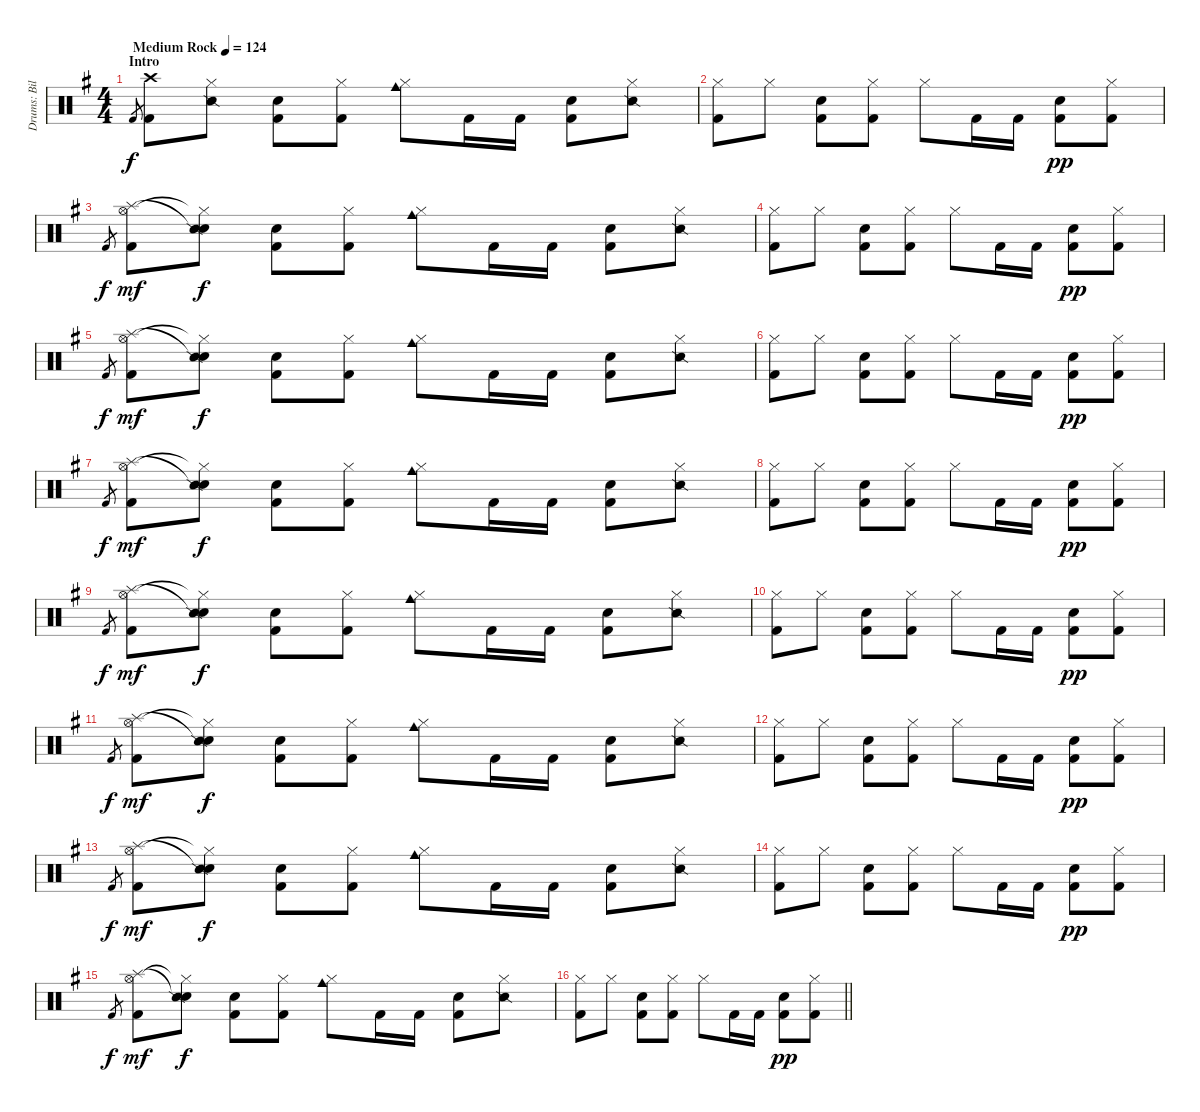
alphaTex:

\track ("Drums: Bill" "Drums: Bil") {instrument percussion}
\staff {score}
\articulation defaults
\ts (4 4)
\section ("" "Intro")
\tempo (124 "Medium Rock")
\clef neutral
\ks g "Kick (hit) 2".8{gr dy f}
("Crash high (hit)" "Kick (hit) 2").8 ("Hi-Hat (closed)" "Snare (side stick) 2").8 ("Electric Snare (hit)" "Kick (hit) 2").8 ("Hi-Hat (closed)" "Kick (hit) 2").8 ("Hi-Hat (closed)" "Cowbell medium (hit)").8 "Kick (hit) 2".16 "Kick (hit) 2".16 ("Electric Snare (hit)" "Kick (hit) 2").8 ("Hi-Hat (closed)" "Snare (side stick) 2").8 |
("Hi-Hat (closed)" "Kick (hit) 2").8 "Hi-Hat (closed)".8 ("Electric Snare (hit)" "Kick (hit) 2").8 ("Hi-Hat (closed)" "Kick (hit) 2").8 "Hi-Hat (closed)".8 "Kick (hit) 2".16 "Kick (hit) 2".16 ("Electric Snare (hit)" "Kick (hit) 2").8{dy pp} ("Hi-Hat (closed)" "Kick (hit) 2").8 |
"Kick (hit) 2".8{gr dy f} ("Splash (hit)" "Hi-Hat (open)" "Kick (hit) 2").8{dy mf} ("Snare (hit)"{t} "Hi-Hat (closed)"{t} "Snare (side stick) 2").8{dy f} ("Electric Snare (hit)" "Kick (hit) 2").8 ("Hi-Hat (closed)" "Kick (hit) 2").8 ("Hi-Hat (closed)" "Cowbell medium (hit)").8 "Kick (hit) 2".16 "Kick (hit) 2".16 ("Electric Snare (hit)" "Kick (hit) 2").8 ("Hi-Hat (closed)" "Snare (side stick) 2").8 |
("Hi-Hat (closed)" "Kick (hit) 2").8 "Hi-Hat (closed)".8 ("Electric Snare (hit)" "Kick (hit) 2").8 ("Hi-Hat (closed)" "Kick (hit) 2").8 "Hi-Hat (closed)".8 "Kick (hit) 2".16 "Kick (hit) 2".16 ("Electric Snare (hit)" "Kick (hit) 2").8{dy pp} ("Hi-Hat (closed)" "Kick (hit) 2").8 |
"Kick (hit) 2".8{gr dy f} ("Splash (hit)" "Hi-Hat (open)" "Kick (hit) 2").8{dy mf} ("Snare (hit)"{t} "Hi-Hat (closed)"{t} "Snare (side stick) 2").8{dy f} ("Electric Snare (hit)" "Kick (hit) 2").8 ("Hi-Hat (closed)" "Kick (hit) 2").8 ("Hi-Hat (closed)" "Cowbell medium (hit)").8 "Kick (hit) 2".16 "Kick (hit) 2".16 ("Electric Snare (hit)" "Kick (hit) 2").8 ("Hi-Hat (closed)" "Snare (side stick) 2").8 |
("Hi-Hat (closed)" "Kick (hit) 2").8 "Hi-Hat (closed)".8 ("Electric Snare (hit)" "Kick (hit) 2").8 ("Hi-Hat (closed)" "Kick (hit) 2").8 "Hi-Hat (closed)".8 "Kick (hit) 2".16 "Kick (hit) 2".16 ("Electric Snare (hit)" "Kick (hit) 2").8{dy pp} ("Hi-Hat (closed)" "Kick (hit) 2").8 |
"Kick (hit) 2".8{gr dy f} ("Splash (hit)" "Hi-Hat (open)" "Kick (hit) 2").8{dy mf} ("Snare (hit)"{t} "Hi-Hat (closed)"{t} "Snare (side stick) 2").8{dy f} ("Electric Snare (hit)" "Kick (hit) 2").8 ("Hi-Hat (closed)" "Kick (hit) 2").8 ("Hi-Hat (closed)" "Cowbell medium (hit)").8 "Kick (hit) 2".16 "Kick (hit) 2".16 ("Electric Snare (hit)" "Kick (hit) 2").8 ("Hi-Hat (closed)" "Snare (side stick) 2").8 |
("Hi-Hat (closed)" "Kick (hit) 2").8 "Hi-Hat (closed)".8 ("Electric Snare (hit)" "Kick (hit) 2").8 ("Hi-Hat (closed)" "Kick (hit) 2").8 "Hi-Hat (closed)".8 "Kick (hit) 2".16 "Kick (hit) 2".16 ("Electric Snare (hit)" "Kick (hit) 2").8{dy pp} ("Hi-Hat (closed)" "Kick (hit) 2").8 |
"Kick (hit) 2".8{gr dy f} ("Splash (hit)" "Hi-Hat (open)" "Kick (hit) 2").8{dy mf} ("Snare (hit)"{t} "Hi-Hat (closed)"{t} "Snare (side stick) 2").8{dy f} ("Electric Snare (hit)" "Kick (hit) 2").8 ("Hi-Hat (closed)" "Kick (hit) 2").8 ("Hi-Hat (closed)" "Cowbell medium (hit)").8 "Kick (hit) 2".16 "Kick (hit) 2".16 ("Electric Snare (hit)" "Kick (hit) 2").8 ("Hi-Hat (closed)" "Snare (side stick) 2").8 |
("Hi-Hat (closed)" "Kick (hit) 2").8 "Hi-Hat (closed)".8 ("Electric Snare (hit)" "Kick (hit) 2").8 ("Hi-Hat (closed)" "Kick (hit) 2").8 "Hi-Hat (closed)".8 "Kick (hit) 2".16 "Kick (hit) 2".16 ("Electric Snare (hit)" "Kick (hit) 2").8{dy pp} ("Hi-Hat (closed)" "Kick (hit) 2").8 |
"Kick (hit) 2".8{gr dy f} ("Splash (hit)" "Hi-Hat (open)" "Kick (hit) 2").8{dy mf} ("Snare (hit)"{t} "Hi-Hat (closed)"{t} "Snare (side stick) 2").8{dy f} ("Electric Snare (hit)" "Kick (hit) 2").8 ("Hi-Hat (closed)" "Kick (hit) 2").8 ("Hi-Hat (closed)" "Cowbell medium (hit)").8 "Kick (hit) 2".16 "Kick (hit) 2".16 ("Electric Snare (hit)" "Kick (hit) 2").8 ("Hi-Hat (closed)" "Snare (side stick) 2").8 |
("Hi-Hat (closed)" "Kick (hit) 2").8 "Hi-Hat (closed)".8 ("Electric Snare (hit)" "Kick (hit) 2").8 ("Hi-Hat (closed)" "Kick (hit) 2").8 "Hi-Hat (closed)".8 "Kick (hit) 2".16 "Kick (hit) 2".16 ("Electric Snare (hit)" "Kick (hit) 2").8{dy pp} ("Hi-Hat (closed)" "Kick (hit) 2").8 |
"Kick (hit) 2".8{gr dy f} ("Splash (hit)" "Hi-Hat (open)" "Kick (hit) 2").8{dy mf} ("Snare (hit)"{t} "Hi-Hat (closed)"{t} "Snare (side stick) 2").8{dy f} ("Electric Snare (hit)" "Kick (hit) 2").8 ("Hi-Hat (closed)" "Kick (hit) 2").8 ("Hi-Hat (closed)" "Cowbell medium (hit)").8 "Kick (hit) 2".16 "Kick (hit) 2".16 ("Electric Snare (hit)" "Kick (hit) 2").8 ("Hi-Hat (closed)" "Snare (side stick) 2").8 |
("Hi-Hat (closed)" "Kick (hit) 2").8 "Hi-Hat (closed)".8 ("Electric Snare (hit)" "Kick (hit) 2").8 ("Hi-Hat (closed)" "Kick (hit) 2").8 "Hi-Hat (closed)".8 "Kick (hit) 2".16 "Kick (hit) 2".16 ("Electric Snare (hit)" "Kick (hit) 2").8{dy pp} ("Hi-Hat (closed)" "Kick (hit) 2").8 |
"Kick (hit) 2".8{gr dy f} ("Splash (hit)" "Hi-Hat (open)" "Kick (hit) 2").8{dy mf} ("Snare (hit)"{t} "Hi-Hat (closed)"{t} "Snare (side stick) 2").8{dy f} ("Electric Snare (hit)" "Kick (hit) 2").8 ("Hi-Hat (closed)" "Kick (hit) 2").8 ("Hi-Hat (closed)" "Cowbell medium (hit)").8 "Kick (hit) 2".16 "Kick (hit) 2".16 ("Electric Snare (hit)" "Kick (hit) 2").8 ("Hi-Hat (closed)" "Snare (side stick) 2").8 |
\barLineRight lightlight
("Hi-Hat (closed)" "Kick (hit) 2").8 "Hi-Hat (closed)".8 ("Electric Snare (hit)" "Kick (hit) 2").8 ("Hi-Hat (closed)" "Kick (hit) 2").8 "Hi-Hat (closed)".8 "Kick (hit) 2".16 "Kick (hit) 2".16 ("Electric Snare (hit)" "Kick (hit) 2").8{dy pp} ("Hi-Hat (closed)" "Kick (hit) 2").8
